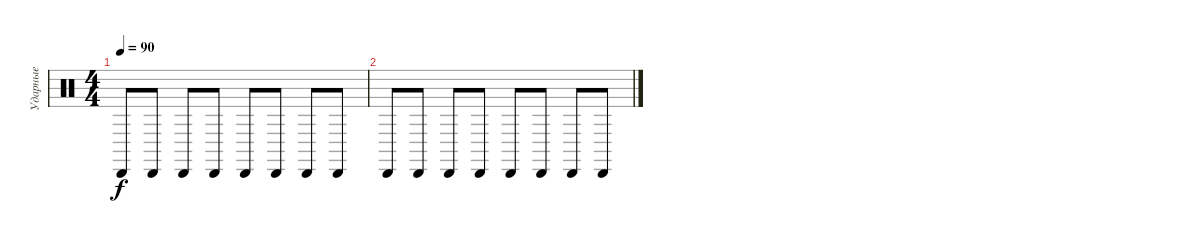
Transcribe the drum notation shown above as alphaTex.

\track ("Ударные" "Ударные") {instrument percussion}
\staff {score}
\articulation defaults
\ts (4 4)
\tempo 90
\clef neutral
\ks c "Cabasa (hit)".8{dy f} "Cabasa (hit)".8 "Cabasa (hit)".8 "Cabasa (hit)".8 "Cabasa (hit)".8 "Cabasa (hit)".8 "Cabasa (hit)".8 "Cabasa (hit)".8
|
"Cabasa (hit)".8 "Cabasa (hit)".8 "Cabasa (hit)".8 "Cabasa (hit)".8 "Cabasa (hit)".8 "Cabasa (hit)".8 "Cabasa (hit)".8 "Cabasa (hit)".8
